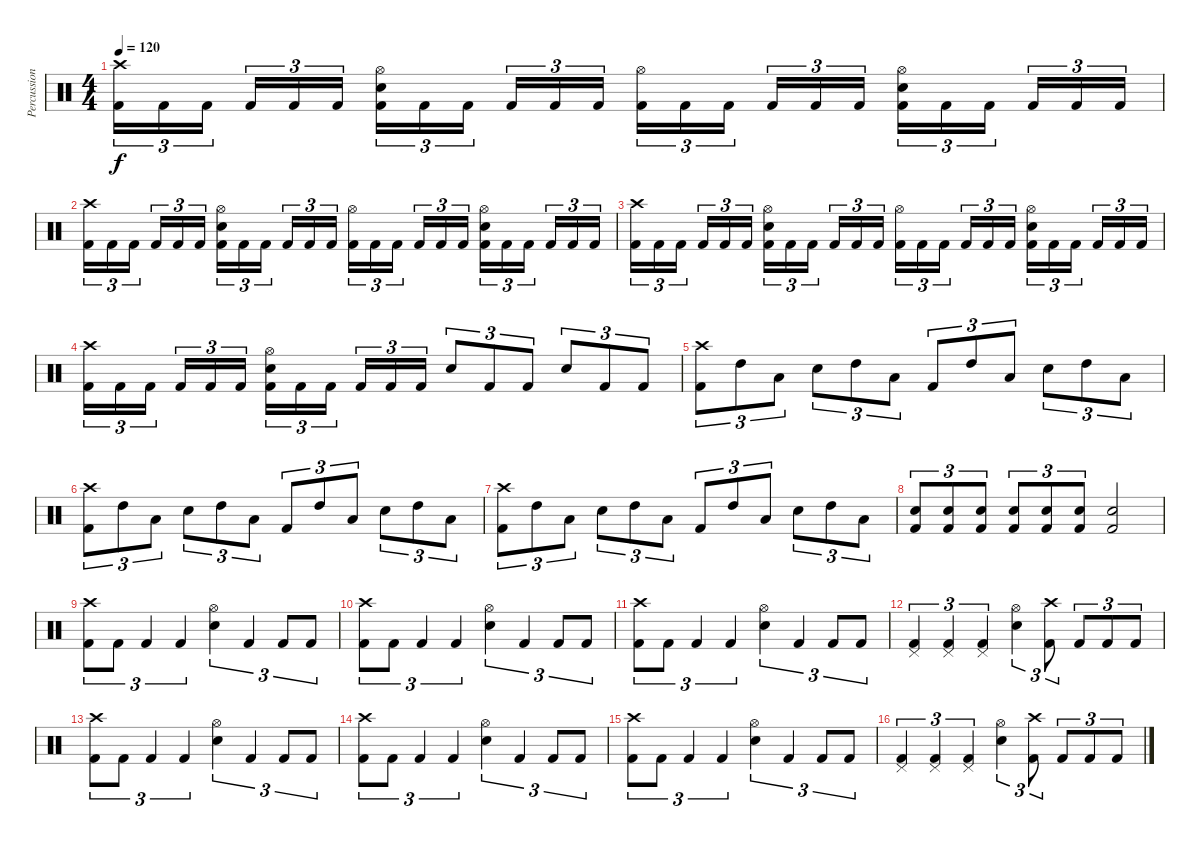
\track ("Percussion" "Percussion") {instrument percussion}
\staff {score}
\articulation defaults
\ts (4 4)
\tempo 120
\clef neutral
\ks c
("Kick (hit) 2" "Crash high (hit)").16{tu (3 2) dy f} "Kick (hit) 2".16{tu (3 2)} "Kick (hit) 2".16{tu (3 2) beam splitsecondary} "Kick (hit) 2".16{tu (3 2)} "Kick (hit) 2".16{tu (3 2)} "Kick (hit) 2".16{tu (3 2)} ("Kick (hit) 2" "Snare (hit) 2" "Hi-Hat (open)").16{tu (3 2)} "Kick (hit) 2".16{tu (3 2)} "Kick (hit) 2".16{tu (3 2) beam splitsecondary} "Kick (hit) 2".16{tu (3 2)} "Kick (hit) 2".16{tu (3 2)} "Kick (hit) 2".16{tu (3 2)} ("Kick (hit) 2" "Hi-Hat (open)").16{tu (3 2)} "Kick (hit) 2".16{tu (3 2)} "Kick (hit) 2".16{tu (3 2) beam splitsecondary} "Kick (hit) 2".16{tu (3 2)} "Kick (hit) 2".16{tu (3 2)} "Kick (hit) 2".16{tu (3 2)} ("Kick (hit) 2" "Snare (hit) 2" "Hi-Hat (open)").16{tu (3 2)} "Kick (hit) 2".16{tu (3 2)} "Kick (hit) 2".16{tu (3 2) beam splitsecondary} "Kick (hit) 2".16{tu (3 2)} "Kick (hit) 2".16{tu (3 2)} "Kick (hit) 2".16{tu (3 2)} |
("Kick (hit) 2" "Crash high (hit)").16{tu (3 2)} "Kick (hit) 2".16{tu (3 2)} "Kick (hit) 2".16{tu (3 2) beam splitsecondary} "Kick (hit) 2".16{tu (3 2)} "Kick (hit) 2".16{tu (3 2)} "Kick (hit) 2".16{tu (3 2)} ("Kick (hit) 2" "Snare (hit) 2" "Hi-Hat (open)").16{tu (3 2)} "Kick (hit) 2".16{tu (3 2)} "Kick (hit) 2".16{tu (3 2) beam splitsecondary} "Kick (hit) 2".16{tu (3 2)} "Kick (hit) 2".16{tu (3 2)} "Kick (hit) 2".16{tu (3 2)} ("Kick (hit) 2" "Hi-Hat (open)").16{tu (3 2)} "Kick (hit) 2".16{tu (3 2)} "Kick (hit) 2".16{tu (3 2) beam splitsecondary} "Kick (hit) 2".16{tu (3 2)} "Kick (hit) 2".16{tu (3 2)} "Kick (hit) 2".16{tu (3 2)} ("Kick (hit) 2" "Snare (hit) 2" "Hi-Hat (open)").16{tu (3 2)} "Kick (hit) 2".16{tu (3 2)} "Kick (hit) 2".16{tu (3 2) beam splitsecondary} "Kick (hit) 2".16{tu (3 2)} "Kick (hit) 2".16{tu (3 2)} "Kick (hit) 2".16{tu (3 2)} |
("Kick (hit) 2" "Crash high (hit)").16{tu (3 2)} "Kick (hit) 2".16{tu (3 2)} "Kick (hit) 2".16{tu (3 2) beam splitsecondary} "Kick (hit) 2".16{tu (3 2)} "Kick (hit) 2".16{tu (3 2)} "Kick (hit) 2".16{tu (3 2)} ("Kick (hit) 2" "Snare (hit) 2" "Hi-Hat (open)").16{tu (3 2)} "Kick (hit) 2".16{tu (3 2)} "Kick (hit) 2".16{tu (3 2) beam splitsecondary} "Kick (hit) 2".16{tu (3 2)} "Kick (hit) 2".16{tu (3 2)} "Kick (hit) 2".16{tu (3 2)} ("Kick (hit) 2" "Hi-Hat (open)").16{tu (3 2)} "Kick (hit) 2".16{tu (3 2)} "Kick (hit) 2".16{tu (3 2) beam splitsecondary} "Kick (hit) 2".16{tu (3 2)} "Kick (hit) 2".16{tu (3 2)} "Kick (hit) 2".16{tu (3 2)} ("Kick (hit) 2" "Snare (hit) 2" "Hi-Hat (open)").16{tu (3 2)} "Kick (hit) 2".16{tu (3 2)} "Kick (hit) 2".16{tu (3 2) beam splitsecondary} "Kick (hit) 2".16{tu (3 2)} "Kick (hit) 2".16{tu (3 2)} "Kick (hit) 2".16{tu (3 2)} |
("Kick (hit) 2" "Crash high (hit)").16{tu (3 2)} "Kick (hit) 2".16{tu (3 2)} "Kick (hit) 2".16{tu (3 2) beam splitsecondary} "Kick (hit) 2".16{tu (3 2)} "Kick (hit) 2".16{tu (3 2)} "Kick (hit) 2".16{tu (3 2)} ("Kick (hit) 2" "Snare (hit) 2" "Hi-Hat (open)").16{tu (3 2)} "Kick (hit) 2".16{tu (3 2)} "Kick (hit) 2".16{tu (3 2) beam splitsecondary} "Kick (hit) 2".16{tu (3 2)} "Kick (hit) 2".16{tu (3 2)} "Kick (hit) 2".16{tu (3 2)} "Snare (hit) 2".8{tu (3 2)} "Kick (hit) 2".8{tu (3 2)} "Kick (hit) 2".8{tu (3 2)} "Snare (hit) 2".8{tu (3 2)} "Kick (hit) 2".8{tu (3 2)} "Kick (hit) 2".8{tu (3 2)} |
("Kick (hit) 2" "Crash high (hit)").8{tu (3 2)} "High Tom (hit)".8{tu (3 2)} "Low Tom (hit)".8{tu (3 2)} "Snare (hit) 2".8{tu (3 2)} "High Tom (hit)".8{tu (3 2)} "Low Tom (hit)".8{tu (3 2)} "Kick (hit) 2".8{tu (3 2)} "High Tom (hit)".8{tu (3 2)} "Low Tom (hit)".8{tu (3 2)} "Snare (hit) 2".8{tu (3 2)} "High Tom (hit)".8{tu (3 2)} "Low Tom (hit)".8{tu (3 2)} |
("Kick (hit) 2" "Crash high (hit)").8{tu (3 2)} "High Tom (hit)".8{tu (3 2)} "Low Tom (hit)".8{tu (3 2)} "Snare (hit) 2".8{tu (3 2)} "High Tom (hit)".8{tu (3 2)} "Low Tom (hit)".8{tu (3 2)} "Kick (hit) 2".8{tu (3 2)} "High Tom (hit)".8{tu (3 2)} "Low Tom (hit)".8{tu (3 2)} "Snare (hit) 2".8{tu (3 2)} "High Tom (hit)".8{tu (3 2)} "Low Tom (hit)".8{tu (3 2)} |
("Kick (hit) 2" "Crash high (hit)").8{tu (3 2)} "High Tom (hit)".8{tu (3 2)} "Low Tom (hit)".8{tu (3 2)} "Snare (hit) 2".8{tu (3 2)} "High Tom (hit)".8{tu (3 2)} "Low Tom (hit)".8{tu (3 2)} "Kick (hit) 2".8{tu (3 2)} "High Tom (hit)".8{tu (3 2)} "Low Tom (hit)".8{tu (3 2)} "Snare (hit) 2".8{tu (3 2)} "High Tom (hit)".8{tu (3 2)} "Low Tom (hit)".8{tu (3 2)} |
("Kick (hit) 2" "Snare (hit) 2").8{tu (3 2)} ("Kick (hit) 2" "Snare (hit) 2").8{tu (3 2)} ("Kick (hit) 2" "Snare (hit) 2").8{tu (3 2)} ("Kick (hit) 2" "Snare (hit) 2").8{tu (3 2)} ("Kick (hit) 2" "Snare (hit) 2").8{tu (3 2)} ("Kick (hit) 2" "Snare (hit) 2").8{tu (3 2)} ("Kick (hit) 2" "Snare (hit) 2").2 |
("Kick (hit) 2" "Crash high (hit)").8{tu (3 2)} "Kick (hit) 2".8{tu (3 2)} "Kick (hit) 2".4{tu (3 2)} "Kick (hit) 2".4{tu (3 2)} ("Snare (hit) 2" "Hi-Hat (open)").4{tu (3 2)} "Kick (hit) 2".4{tu (3 2)} "Kick (hit) 2".8{tu (3 2)} "Kick (hit) 2".8{tu (3 2)} |
("Kick (hit) 2" "Crash high (hit)").8{tu (3 2)} "Kick (hit) 2".8{tu (3 2)} "Kick (hit) 2".4{tu (3 2)} "Kick (hit) 2".4{tu (3 2)} ("Snare (hit) 2" "Hi-Hat (open)").4{tu (3 2)} "Kick (hit) 2".4{tu (3 2)} "Kick (hit) 2".8{tu (3 2)} "Kick (hit) 2".8{tu (3 2)} |
("Kick (hit) 2" "Crash high (hit)").8{tu (3 2)} "Kick (hit) 2".8{tu (3 2)} "Kick (hit) 2".4{tu (3 2)} "Kick (hit) 2".4{tu (3 2)} ("Snare (hit) 2" "Hi-Hat (open)").4{tu (3 2)} "Kick (hit) 2".4{tu (3 2)} "Kick (hit) 2".8{tu (3 2)} "Kick (hit) 2".8{tu (3 2)} |
("Kick (hit) 2" "Pedal Hi-Hat (hit)").4{tu (3 2)} ("Kick (hit) 2" "Pedal Hi-Hat (hit)").4{tu (3 2)} ("Kick (hit) 2" "Pedal Hi-Hat (hit)").4{tu (3 2)} ("Snare (hit) 2" "Hi-Hat (open)").4{tu (3 2)} ("Kick (hit) 2" "Crash high (hit)").8{tu (3 2)} "Kick (hit) 2".8{tu (3 2)} "Kick (hit) 2".8{tu (3 2)} "Kick (hit) 2".8{tu (3 2)} |
("Kick (hit) 2" "Crash high (hit)").8{tu (3 2)} "Kick (hit) 2".8{tu (3 2)} "Kick (hit) 2".4{tu (3 2)} "Kick (hit) 2".4{tu (3 2)} ("Snare (hit) 2" "Hi-Hat (open)").4{tu (3 2)} "Kick (hit) 2".4{tu (3 2)} "Kick (hit) 2".8{tu (3 2)} "Kick (hit) 2".8{tu (3 2)} |
("Kick (hit) 2" "Crash high (hit)").8{tu (3 2)} "Kick (hit) 2".8{tu (3 2)} "Kick (hit) 2".4{tu (3 2)} "Kick (hit) 2".4{tu (3 2)} ("Snare (hit) 2" "Hi-Hat (open)").4{tu (3 2)} "Kick (hit) 2".4{tu (3 2)} "Kick (hit) 2".8{tu (3 2)} "Kick (hit) 2".8{tu (3 2)} |
("Kick (hit) 2" "Crash high (hit)").8{tu (3 2)} "Kick (hit) 2".8{tu (3 2)} "Kick (hit) 2".4{tu (3 2)} "Kick (hit) 2".4{tu (3 2)} ("Snare (hit) 2" "Hi-Hat (open)").4{tu (3 2)} "Kick (hit) 2".4{tu (3 2)} "Kick (hit) 2".8{tu (3 2)} "Kick (hit) 2".8{tu (3 2)} |
("Kick (hit) 2" "Pedal Hi-Hat (hit)").4{tu (3 2)} ("Kick (hit) 2" "Pedal Hi-Hat (hit)").4{tu (3 2)} ("Kick (hit) 2" "Pedal Hi-Hat (hit)").4{tu (3 2)} ("Snare (hit) 2" "Hi-Hat (open)").4{tu (3 2)} ("Kick (hit) 2" "Crash high (hit)").8{tu (3 2)} "Kick (hit) 2".8{tu (3 2)} "Kick (hit) 2".8{tu (3 2)} "Kick (hit) 2".8{tu (3 2)}
